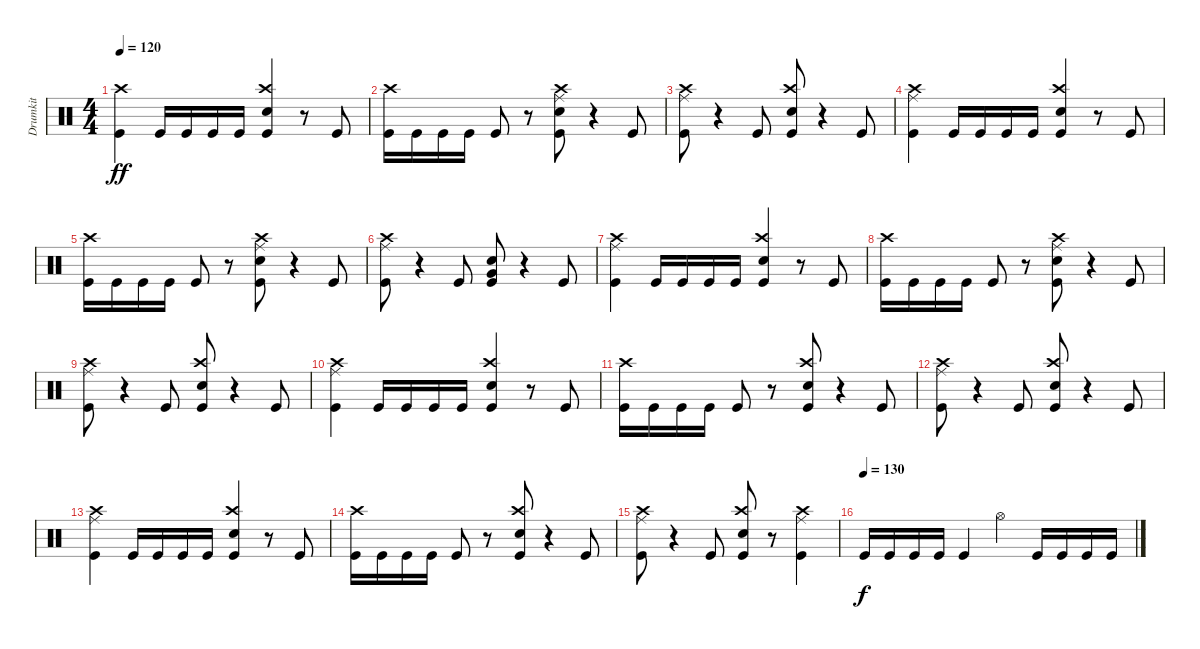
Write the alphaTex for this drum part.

\track ("Drumkit" "Drumkit") {instrument percussion}
\staff {score}
\articulation defaults
\ts (4 4)
\tempo 120
\clef neutral
\ks c
("Kick (hit)" "Crash high (hit)").4{dy ff} "Kick (hit)".16 "Kick (hit)".16 "Kick (hit)".16 "Kick (hit)".16 ("Kick (hit)" "Snare (hit) 2" "Crash high (hit)").4 r.8 "Kick (hit)".8 |
("Kick (hit)" "Crash high (hit)").16 "Kick (hit)".16 "Kick (hit)".16 "Kick (hit)".16 "Kick (hit)".8 r.8 ("Kick (hit)" "Ride (middle)" "Crash high (hit)" "Snare (hit) 2").8 r.4 "Kick (hit)".8 |
("Kick (hit)" "Ride (middle)" "Crash high (hit)").8 r.4 "Kick (hit)".8 ("Kick (hit)" "Crash high (hit)" "Snare (hit) 2").8 r.4 "Kick (hit)".8 |
("Kick (hit)" "Crash high (hit)" "Ride (middle)").4 "Kick (hit)".16 "Kick (hit)".16 "Kick (hit)".16 "Kick (hit)".16 ("Kick (hit)" "Snare (hit) 2" "Crash high (hit)").4 r.8 "Kick (hit)".8 |
("Kick (hit)" "Crash high (hit)").16 "Kick (hit)".16 "Kick (hit)".16 "Kick (hit)".16 "Kick (hit)".8 r.8 ("Kick (hit)" "Ride (middle)" "Crash high (hit)" "Snare (hit) 2").8 r.4 "Kick (hit)".8 |
("Kick (hit)" "Ride (middle)" "Crash high (hit)").8 r.4 "Kick (hit)".8 ("Kick (hit)" "Snare (hit) 2" "Very Low Tom (hit)").8 r.4 "Kick (hit)".8 |
("Kick (hit)" "Crash high (hit)" "Ride (middle)").4 "Kick (hit)".16 "Kick (hit)".16 "Kick (hit)".16 "Kick (hit)".16 ("Kick (hit)" "Snare (hit) 2" "Crash high (hit)").4 r.8 "Kick (hit)".8 |
("Kick (hit)" "Crash high (hit)").16 "Kick (hit)".16 "Kick (hit)".16 "Kick (hit)".16 "Kick (hit)".8 r.8 ("Kick (hit)" "Ride (middle)" "Crash high (hit)" "Snare (hit) 2").8 r.4 "Kick (hit)".8 |
("Kick (hit)" "Ride (middle)" "Crash high (hit)").8 r.4 "Kick (hit)".8 ("Kick (hit)" "Crash high (hit)" "Snare (hit) 2").8 r.4 "Kick (hit)".8 |
("Kick (hit)" "Crash high (hit)" "Ride (middle)").4 "Kick (hit)".16 "Kick (hit)".16 "Kick (hit)".16 "Kick (hit)".16 ("Kick (hit)" "Snare (hit) 2" "Crash high (hit)").4 r.8 "Kick (hit)".8 |
("Kick (hit)" "Crash high (hit)").16 "Kick (hit)".16 "Kick (hit)".16 "Kick (hit)".16 "Kick (hit)".8 r.8 ("Kick (hit)" "Crash high (hit)" "Snare (hit) 2").8 r.4 "Kick (hit)".8 |
("Kick (hit)" "Ride (middle)" "Crash high (hit)").8 r.4 "Kick (hit)".8 ("Kick (hit)" "Crash high (hit)" "Snare (hit) 2").8 r.4 "Kick (hit)".8 |
("Kick (hit)" "Crash high (hit)" "Ride (middle)").4 "Kick (hit)".16 "Kick (hit)".16 "Kick (hit)".16 "Kick (hit)".16 ("Kick (hit)" "Snare (hit) 2" "Crash high (hit)").4 r.8 "Kick (hit)".8 |
("Kick (hit)" "Crash high (hit)").16 "Kick (hit)".16 "Kick (hit)".16 "Kick (hit)".16 "Kick (hit)".8 r.8 ("Kick (hit)" "Crash high (hit)" "Snare (hit) 2").8 r.4 "Kick (hit)".8 |
("Kick (hit)" "Ride (middle)" "Crash high (hit)").8 r.4 "Kick (hit)".8 ("Kick (hit)" "Crash high (hit)" "Snare (hit) 2").8 r.8 ("Kick (hit)" "Crash high (hit)" "Ride (middle)").4 |
\tempo (130)
"Kick (hit)".16{dy f} "Kick (hit)".16 "Kick (hit)".16 "Kick (hit)".16 "Kick (hit)".4 "Hi-Hat (open)".4 "Kick (hit)".16 "Kick (hit)".16 "Kick (hit)".16 "Kick (hit)".16
